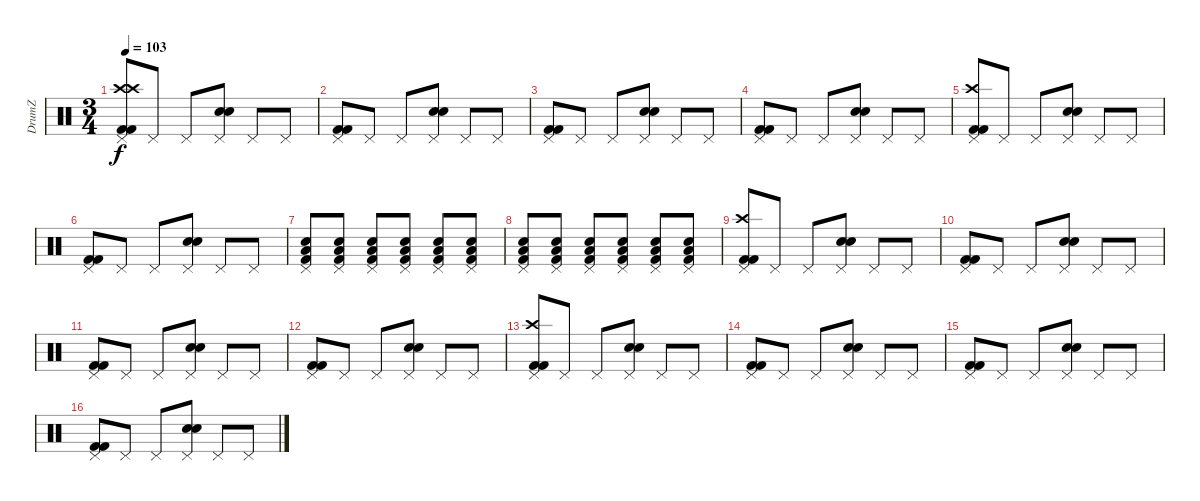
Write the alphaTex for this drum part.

\track ("DrumZ" "DrumZ") {instrument percussion}
\staff {score}
\articulation defaults
\ts (3 4)
\tempo 103
\clef neutral
\ks c
("Pedal Hi-Hat (hit)" "Crash high (hit)" "Kick (hit) 2" "Kick (hit) 2" "Crash high (hit)").8{dy f} "Pedal Hi-Hat (hit)".8 "Pedal Hi-Hat (hit)".8 ("Pedal Hi-Hat (hit)" "Electric Snare (hit)" "Electric Snare (hit)").8 "Pedal Hi-Hat (hit)".8 "Pedal Hi-Hat (hit)".8 |
("Pedal Hi-Hat (hit)" "Kick (hit) 2" "Kick (hit) 2").8 "Pedal Hi-Hat (hit)".8 "Pedal Hi-Hat (hit)".8 ("Pedal Hi-Hat (hit)" "Electric Snare (hit)" "Electric Snare (hit)").8 "Pedal Hi-Hat (hit)".8 "Pedal Hi-Hat (hit)".8 |
("Pedal Hi-Hat (hit)" "Kick (hit) 2" "Kick (hit) 2").8 "Pedal Hi-Hat (hit)".8 "Pedal Hi-Hat (hit)".8 ("Pedal Hi-Hat (hit)" "Electric Snare (hit)" "Electric Snare (hit)").8 "Pedal Hi-Hat (hit)".8 "Pedal Hi-Hat (hit)".8 |
("Pedal Hi-Hat (hit)" "Kick (hit) 2" "Kick (hit) 2").8 "Pedal Hi-Hat (hit)".8 "Pedal Hi-Hat (hit)".8 ("Pedal Hi-Hat (hit)" "Electric Snare (hit)" "Electric Snare (hit)").8 "Pedal Hi-Hat (hit)".8 "Pedal Hi-Hat (hit)".8 |
("Pedal Hi-Hat (hit)" "Crash high (hit)" "Kick (hit) 2" "Kick (hit) 2").8 "Pedal Hi-Hat (hit)".8 "Pedal Hi-Hat (hit)".8 ("Pedal Hi-Hat (hit)" "Electric Snare (hit)" "Electric Snare (hit)").8 "Pedal Hi-Hat (hit)".8 "Pedal Hi-Hat (hit)".8 |
("Pedal Hi-Hat (hit)" "Kick (hit) 2" "Kick (hit) 2").8 "Pedal Hi-Hat (hit)".8 "Pedal Hi-Hat (hit)".8 ("Pedal Hi-Hat (hit)" "Electric Snare (hit)" "Electric Snare (hit)").8 "Pedal Hi-Hat (hit)".8 "Pedal Hi-Hat (hit)".8 |
("Low Tom (hit)" "Pedal Hi-Hat (hit)" "Snare (hit) 2" "Kick (hit) 2").8 ("Low Tom (hit)" "Pedal Hi-Hat (hit)" "Snare (hit) 2" "Kick (hit) 2").8 ("Low Tom (hit)" "Pedal Hi-Hat (hit)" "Snare (hit) 2" "Kick (hit) 2").8 ("Low Tom (hit)" "Pedal Hi-Hat (hit)" "Snare (hit) 2" "Kick (hit) 2").8 ("Low Tom (hit)" "Pedal Hi-Hat (hit)" "Snare (hit) 2" "Kick (hit) 2").8 ("Low Tom (hit)" "Pedal Hi-Hat (hit)" "Snare (hit) 2" "Kick (hit) 2").8 |
("Low Tom (hit)" "Pedal Hi-Hat (hit)" "Snare (hit) 2" "Kick (hit) 2").8 ("Low Tom (hit)" "Pedal Hi-Hat (hit)" "Snare (hit) 2" "Kick (hit) 2").8 ("Low Tom (hit)" "Pedal Hi-Hat (hit)" "Snare (hit) 2" "Kick (hit) 2").8 ("Low Tom (hit)" "Pedal Hi-Hat (hit)" "Snare (hit) 2" "Kick (hit) 2").8 ("Low Tom (hit)" "Pedal Hi-Hat (hit)" "Snare (hit) 2" "Kick (hit) 2").8 ("Low Tom (hit)" "Pedal Hi-Hat (hit)" "Snare (hit) 2" "Kick (hit) 2").8 |
("Pedal Hi-Hat (hit)" "Crash high (hit)" "Kick (hit) 2" "Kick (hit) 2").8 "Pedal Hi-Hat (hit)".8 "Pedal Hi-Hat (hit)".8 ("Pedal Hi-Hat (hit)" "Electric Snare (hit)" "Electric Snare (hit)").8 "Pedal Hi-Hat (hit)".8 "Pedal Hi-Hat (hit)".8 |
("Pedal Hi-Hat (hit)" "Kick (hit) 2" "Kick (hit) 2").8 "Pedal Hi-Hat (hit)".8 "Pedal Hi-Hat (hit)".8 ("Pedal Hi-Hat (hit)" "Electric Snare (hit)" "Electric Snare (hit)").8 "Pedal Hi-Hat (hit)".8 "Pedal Hi-Hat (hit)".8 |
("Pedal Hi-Hat (hit)" "Kick (hit) 2" "Kick (hit) 2").8 "Pedal Hi-Hat (hit)".8 "Pedal Hi-Hat (hit)".8 ("Pedal Hi-Hat (hit)" "Electric Snare (hit)" "Electric Snare (hit)").8 "Pedal Hi-Hat (hit)".8 "Pedal Hi-Hat (hit)".8 |
("Pedal Hi-Hat (hit)" "Kick (hit) 2" "Kick (hit) 2").8 "Pedal Hi-Hat (hit)".8 "Pedal Hi-Hat (hit)".8 ("Pedal Hi-Hat (hit)" "Electric Snare (hit)" "Electric Snare (hit)").8 "Pedal Hi-Hat (hit)".8 "Pedal Hi-Hat (hit)".8 |
("Pedal Hi-Hat (hit)" "Crash high (hit)" "Kick (hit) 2" "Kick (hit) 2").8 "Pedal Hi-Hat (hit)".8 "Pedal Hi-Hat (hit)".8 ("Pedal Hi-Hat (hit)" "Electric Snare (hit)" "Electric Snare (hit)").8 "Pedal Hi-Hat (hit)".8 "Pedal Hi-Hat (hit)".8 |
("Pedal Hi-Hat (hit)" "Kick (hit) 2" "Kick (hit) 2").8 "Pedal Hi-Hat (hit)".8 "Pedal Hi-Hat (hit)".8 ("Pedal Hi-Hat (hit)" "Electric Snare (hit)" "Electric Snare (hit)").8 "Pedal Hi-Hat (hit)".8 "Pedal Hi-Hat (hit)".8 |
("Pedal Hi-Hat (hit)" "Kick (hit) 2" "Kick (hit) 2").8 "Pedal Hi-Hat (hit)".8 "Pedal Hi-Hat (hit)".8 ("Pedal Hi-Hat (hit)" "Electric Snare (hit)" "Electric Snare (hit)").8 "Pedal Hi-Hat (hit)".8 "Pedal Hi-Hat (hit)".8 |
("Pedal Hi-Hat (hit)" "Kick (hit) 2" "Kick (hit) 2").8 "Pedal Hi-Hat (hit)".8 "Pedal Hi-Hat (hit)".8 ("Pedal Hi-Hat (hit)" "Electric Snare (hit)" "Electric Snare (hit)").8 "Pedal Hi-Hat (hit)".8 "Pedal Hi-Hat (hit)".8
